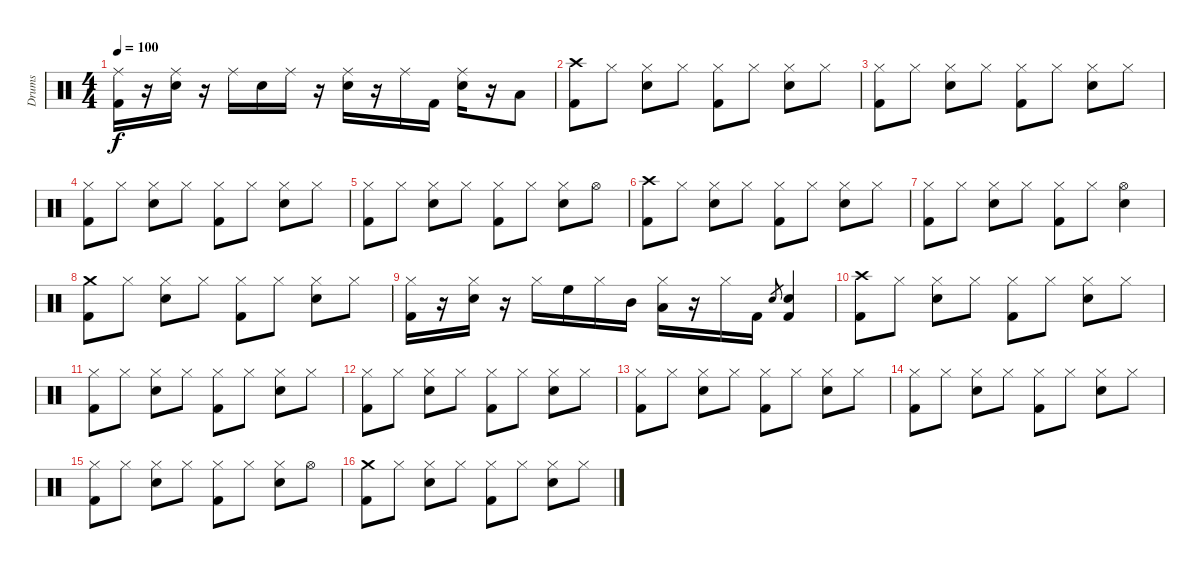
\track ("Drums" "Drums") {instrument percussion}
\staff {score}
\articulation defaults
\ts (4 4)
\tempo 100
\clef neutral
\ks c
("Ride (middle)" "Kick (hit) 2").16{dy f} r.16 ("Ride (middle)" "Snare (hit) 2").16 r.16 "Ride (middle)".16 "Snare (hit) 2".16 "Ride (middle)".16 r.16 ("Ride (middle)" "Snare (hit) 2").16 r.16 "Ride (middle)".16 "Kick (hit) 2".16 ("Ride (middle)" "Snare (hit) 2").16 r.16 "Low Tom (hit)".8 |
("Crash high (hit)" "Kick (hit) 2").8 "Hi-Hat (closed)".8 ("Hi-Hat (closed)" "Snare (hit) 2").8 "Hi-Hat (closed)".8 ("Hi-Hat (closed)" "Kick (hit) 2").8 "Hi-Hat (closed)".8 ("Hi-Hat (closed)" "Snare (hit) 2").8 "Hi-Hat (closed)".8 |
("Hi-Hat (closed)" "Kick (hit) 2").8 "Hi-Hat (closed)".8 ("Hi-Hat (closed)" "Snare (hit) 2").8 "Hi-Hat (closed)".8 ("Hi-Hat (closed)" "Kick (hit) 2").8 "Hi-Hat (closed)".8 ("Hi-Hat (closed)" "Snare (hit) 2").8 "Hi-Hat (closed)".8 |
("Hi-Hat (closed)" "Kick (hit) 2").8 "Hi-Hat (closed)".8 ("Hi-Hat (closed)" "Snare (hit) 2").8 "Hi-Hat (closed)".8 ("Hi-Hat (closed)" "Kick (hit) 2").8 "Hi-Hat (closed)".8 ("Hi-Hat (closed)" "Snare (hit) 2").8 "Hi-Hat (closed)".8 |
("Hi-Hat (closed)" "Kick (hit) 2").8 "Hi-Hat (closed)".8 ("Hi-Hat (closed)" "Snare (hit) 2").8 "Hi-Hat (closed)".8 ("Hi-Hat (closed)" "Kick (hit) 2").8 "Hi-Hat (closed)".8 ("Hi-Hat (closed)" "Snare (hit) 2").8 "Hi-Hat (open)".8 |
("Crash high (hit)" "Kick (hit) 2").8 "Hi-Hat (closed)".8 ("Hi-Hat (closed)" "Snare (hit) 2").8 "Hi-Hat (closed)".8 ("Hi-Hat (closed)" "Kick (hit) 2").8 "Hi-Hat (closed)".8 ("Hi-Hat (closed)" "Snare (hit) 2").8 "Hi-Hat (closed)".8 |
("Hi-Hat (closed)" "Kick (hit) 2").8 "Hi-Hat (closed)".8 ("Hi-Hat (closed)" "Snare (hit) 2").8 "Hi-Hat (closed)".8 ("Hi-Hat (closed)" "Kick (hit) 2").8 "Hi-Hat (closed)".8 ("Hi-Hat (open)" "Snare (hit) 2").4 |
("Crash medium (hit)" "Kick (hit) 2").8 "Hi-Hat (closed)".8 ("Hi-Hat (closed)" "Snare (hit) 2").8 "Hi-Hat (closed)".8 ("Hi-Hat (closed)" "Kick (hit) 2").8 "Hi-Hat (closed)".8 ("Hi-Hat (closed)" "Snare (hit) 2").8 "Hi-Hat (closed)".8 |
("Hi-Hat (closed)" "Kick (hit) 2").16 r.16 ("Hi-Hat (closed)" "Snare (hit) 2").16 r.16 "Hi-Hat (closed)".16 "High Floor Tom (hit)".16 "Hi-Hat (closed)".16 "Mid Tom (hit)".16 ("Hi-Hat (closed)" "Low Tom (hit)").16 r.16 "Hi-Hat (closed)".16 "Kick (hit) 2".16 "Snare (hit) 2".8{gr} ("Kick (hit) 2" "Snare (hit) 2").4 |
("Crash high (hit)" "Kick (hit) 2").8 "Hi-Hat (closed)".8 ("Hi-Hat (closed)" "Snare (hit) 2").8 "Hi-Hat (closed)".8 ("Hi-Hat (closed)" "Kick (hit) 2").8 "Hi-Hat (closed)".8 ("Hi-Hat (closed)" "Snare (hit) 2").8 "Hi-Hat (closed)".8 |
("Hi-Hat (closed)" "Kick (hit) 2").8 "Hi-Hat (closed)".8 ("Hi-Hat (closed)" "Snare (hit) 2").8 "Hi-Hat (closed)".8 ("Hi-Hat (closed)" "Kick (hit) 2").8 "Hi-Hat (closed)".8 ("Hi-Hat (closed)" "Snare (hit) 2").8 "Hi-Hat (closed)".8 |
("Hi-Hat (closed)" "Kick (hit) 2").8 "Hi-Hat (closed)".8 ("Hi-Hat (closed)" "Snare (hit) 2").8 "Hi-Hat (closed)".8 ("Hi-Hat (closed)" "Kick (hit) 2").8 "Hi-Hat (closed)".8 ("Hi-Hat (closed)" "Snare (hit) 2").8 "Hi-Hat (closed)".8 |
("Hi-Hat (closed)" "Kick (hit) 2").8 "Hi-Hat (closed)".8 ("Hi-Hat (closed)" "Snare (hit) 2").8 "Hi-Hat (closed)".8 ("Hi-Hat (closed)" "Kick (hit) 2").8 "Hi-Hat (closed)".8 ("Hi-Hat (closed)" "Snare (hit) 2").8 "Hi-Hat (closed)".8 |
("Hi-Hat (closed)" "Kick (hit) 2").8 "Hi-Hat (closed)".8 ("Hi-Hat (closed)" "Snare (hit) 2").8 "Hi-Hat (closed)".8 ("Hi-Hat (closed)" "Kick (hit) 2").8 "Hi-Hat (closed)".8 ("Hi-Hat (closed)" "Snare (hit) 2").8 "Hi-Hat (closed)".8 |
("Hi-Hat (closed)" "Kick (hit) 2").8 "Hi-Hat (closed)".8 ("Hi-Hat (closed)" "Snare (hit) 2").8 "Hi-Hat (closed)".8 ("Hi-Hat (closed)" "Kick (hit) 2").8 "Hi-Hat (closed)".8 ("Hi-Hat (closed)" "Snare (hit) 2").8 "Hi-Hat (open)".8 |
("Crash medium (hit)" "Kick (hit) 2").8 "Hi-Hat (closed)".8 ("Hi-Hat (closed)" "Snare (hit) 2").8 "Hi-Hat (closed)".8 ("Hi-Hat (closed)" "Kick (hit) 2").8 "Hi-Hat (closed)".8 ("Hi-Hat (closed)" "Snare (hit) 2").8 "Hi-Hat (closed)".8
